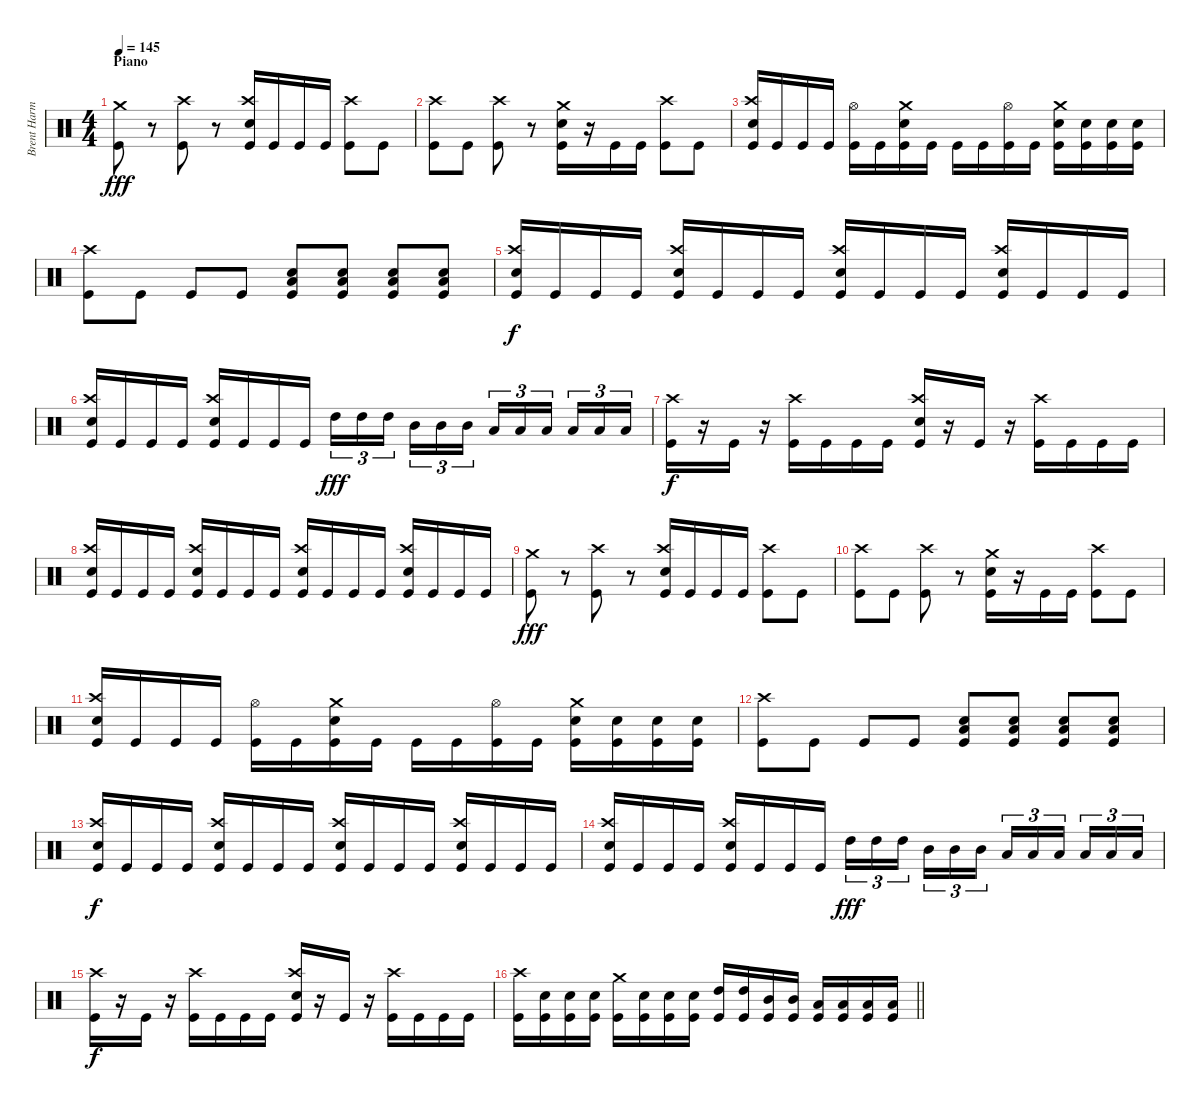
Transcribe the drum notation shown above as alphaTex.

\track ("Brent Harman" "Brent Harm") {instrument percussion}
\staff {score}
\articulation defaults
\ts (4 4)
\section ("" "Piano")
\tempo 145
\clef neutral
\ks c
("Crash medium (hit)" "Kick (hit)").8{dy fff} r.8 ("Crash high (hit)" "Kick (hit)").8 r.8 ("Crash high (hit)" "Snare (hit) 2" "Kick (hit)").16 "Kick (hit)".16 "Kick (hit)".16 "Kick (hit)".16 ("Crash high (hit)" "Kick (hit)").8 "Kick (hit)".8 |
("Crash high (hit)" "Kick (hit)").8 "Kick (hit)".8 ("Crash high (hit)" "Kick (hit)").8 r.8 ("Crash medium (hit)" "Snare (hit) 2" "Kick (hit)").16 r.16 "Kick (hit)".16 "Kick (hit)".16 ("Crash high (hit)" "Kick (hit)").8 "Kick (hit)".8 |
("Crash high (hit)" "Snare (hit) 2" "Kick (hit)").16 "Kick (hit)".16 "Kick (hit)".16 "Kick (hit)".16 ("Hi-Hat (open)" "Kick (hit)").16 "Kick (hit)".16 ("Crash medium (hit)" "Snare (hit) 2" "Kick (hit)").16 "Kick (hit)".16 "Kick (hit)".16 "Kick (hit)".16 ("Hi-Hat (open)" "Kick (hit)").16 "Kick (hit)".16 ("Crash medium (hit)" "Snare (hit) 2" "Kick (hit)").16 ("Snare (hit) 2" "Kick (hit)").16 ("Snare (hit) 2" "Kick (hit)").16 ("Snare (hit) 2" "Kick (hit)").16 |
("Crash high (hit)" "Kick (hit)").8 "Kick (hit)".8 "Kick (hit)".8 "Kick (hit)".8 ("Snare (hit) 2" "Low Floor Tom (hit)" "Kick (hit)").8 ("Snare (hit) 2" "Low Floor Tom (hit)" "Kick (hit)").8 ("Snare (hit) 2" "Low Floor Tom (hit)" "Kick (hit)").8 ("Snare (hit) 2" "Low Floor Tom (hit)" "Kick (hit)").8 |
("Crash high (hit)" "Snare (hit) 2" "Kick (hit)").16{dy f} "Kick (hit)".16 "Kick (hit)".16 "Kick (hit)".16 ("Crash high (hit)" "Snare (hit) 2" "Kick (hit)").16 "Kick (hit)".16 "Kick (hit)".16 "Kick (hit)".16 ("Crash high (hit)" "Snare (hit) 2" "Kick (hit)").16 "Kick (hit)".16 "Kick (hit)".16 "Kick (hit)".16 ("Crash high (hit)" "Snare (hit) 2" "Kick (hit)").16 "Kick (hit)".16 "Kick (hit)".16 "Kick (hit)".16 |
("Crash high (hit)" "Snare (hit) 2" "Kick (hit)").16 "Kick (hit)".16 "Kick (hit)".16 "Kick (hit)".16 ("Crash high (hit)" "Snare (hit) 2" "Kick (hit)").16 "Kick (hit)".16 "Kick (hit)".16 "Kick (hit)".16 "High Tom (hit)".16{tu (3 2) dy fff} "High Tom (hit)".16{tu (3 2)} "High Tom (hit)".16{tu (3 2) beam splitsecondary} "Mid Tom (hit)".16{tu (3 2)} "Mid Tom (hit)".16{tu (3 2)} "Mid Tom (hit)".16{tu (3 2)} "Low Tom (hit)".16{tu (3 2)} "Low Tom (hit)".16{tu (3 2)} "Low Tom (hit)".16{tu (3 2) beam splitsecondary} "Low Floor Tom (hit)".16{tu (3 2)} "Low Floor Tom (hit)".16{tu (3 2)} "Low Floor Tom (hit)".16{tu (3 2)} |
("Crash high (hit)" "Kick (hit)").16{dy f} r.16 "Kick (hit)".16 r.16 ("Crash high (hit)" "Kick (hit)").16 "Kick (hit)".16 "Kick (hit)".16 "Kick (hit)".16 ("Crash high (hit)" "Snare (hit) 2" "Kick (hit)").16 r.16 "Kick (hit)".16 r.16 ("Crash high (hit)" "Kick (hit)").16 "Kick (hit)".16 "Kick (hit)".16 "Kick (hit)".16 |
("Crash high (hit)" "Snare (hit) 2" "Kick (hit)").16 "Kick (hit)".16 "Kick (hit)".16 "Kick (hit)".16 ("Crash high (hit)" "Snare (hit) 2" "Kick (hit)").16 "Kick (hit)".16 "Kick (hit)".16 "Kick (hit)".16 ("Crash high (hit)" "Snare (hit) 2" "Kick (hit)").16 "Kick (hit)".16 "Kick (hit)".16 "Kick (hit)".16 ("Crash high (hit)" "Snare (hit) 2" "Kick (hit)").16 "Kick (hit)".16 "Kick (hit)".16 "Kick (hit)".16 |
("Crash medium (hit)" "Kick (hit)").8{dy fff} r.8 ("Crash high (hit)" "Kick (hit)").8 r.8 ("Crash high (hit)" "Snare (hit) 2" "Kick (hit)").16 "Kick (hit)".16 "Kick (hit)".16 "Kick (hit)".16 ("Crash high (hit)" "Kick (hit)").8 "Kick (hit)".8 |
("Crash high (hit)" "Kick (hit)").8 "Kick (hit)".8 ("Crash high (hit)" "Kick (hit)").8 r.8 ("Crash medium (hit)" "Snare (hit) 2" "Kick (hit)").16 r.16 "Kick (hit)".16 "Kick (hit)".16 ("Crash high (hit)" "Kick (hit)").8 "Kick (hit)".8 |
("Crash high (hit)" "Snare (hit) 2" "Kick (hit)").16 "Kick (hit)".16 "Kick (hit)".16 "Kick (hit)".16 ("Hi-Hat (open)" "Kick (hit)").16 "Kick (hit)".16 ("Crash medium (hit)" "Snare (hit) 2" "Kick (hit)").16 "Kick (hit)".16 "Kick (hit)".16 "Kick (hit)".16 ("Hi-Hat (open)" "Kick (hit)").16 "Kick (hit)".16 ("Crash medium (hit)" "Snare (hit) 2" "Kick (hit)").16 ("Snare (hit) 2" "Kick (hit)").16 ("Snare (hit) 2" "Kick (hit)").16 ("Snare (hit) 2" "Kick (hit)").16 |
("Crash high (hit)" "Kick (hit)").8 "Kick (hit)".8 "Kick (hit)".8 "Kick (hit)".8 ("Snare (hit) 2" "Low Floor Tom (hit)" "Kick (hit)").8 ("Snare (hit) 2" "Low Floor Tom (hit)" "Kick (hit)").8 ("Snare (hit) 2" "Low Floor Tom (hit)" "Kick (hit)").8 ("Snare (hit) 2" "Low Floor Tom (hit)" "Kick (hit)").8 |
("Crash high (hit)" "Snare (hit) 2" "Kick (hit)").16{dy f} "Kick (hit)".16 "Kick (hit)".16 "Kick (hit)".16 ("Crash high (hit)" "Snare (hit) 2" "Kick (hit)").16 "Kick (hit)".16 "Kick (hit)".16 "Kick (hit)".16 ("Crash high (hit)" "Snare (hit) 2" "Kick (hit)").16 "Kick (hit)".16 "Kick (hit)".16 "Kick (hit)".16 ("Crash high (hit)" "Snare (hit) 2" "Kick (hit)").16 "Kick (hit)".16 "Kick (hit)".16 "Kick (hit)".16 |
("Crash high (hit)" "Snare (hit) 2" "Kick (hit)").16 "Kick (hit)".16 "Kick (hit)".16 "Kick (hit)".16 ("Crash high (hit)" "Snare (hit) 2" "Kick (hit)").16 "Kick (hit)".16 "Kick (hit)".16 "Kick (hit)".16 "High Tom (hit)".16{tu (3 2) dy fff} "High Tom (hit)".16{tu (3 2)} "High Tom (hit)".16{tu (3 2) beam splitsecondary} "Mid Tom (hit)".16{tu (3 2)} "Mid Tom (hit)".16{tu (3 2)} "Mid Tom (hit)".16{tu (3 2)} "Low Tom (hit)".16{tu (3 2)} "Low Tom (hit)".16{tu (3 2)} "Low Tom (hit)".16{tu (3 2) beam splitsecondary} "Low Floor Tom (hit)".16{tu (3 2)} "Low Floor Tom (hit)".16{tu (3 2)} "Low Floor Tom (hit)".16{tu (3 2)} |
("Crash high (hit)" "Kick (hit)").16{dy f} r.16 "Kick (hit)".16 r.16 ("Crash high (hit)" "Kick (hit)").16 "Kick (hit)".16 "Kick (hit)".16 "Kick (hit)".16 ("Crash high (hit)" "Snare (hit) 2" "Kick (hit)").16 r.16 "Kick (hit)".16 r.16 ("Crash high (hit)" "Kick (hit)").16 "Kick (hit)".16 "Kick (hit)".16 "Kick (hit)".16 |
\barLineRight lightlight
("Crash high (hit)" "Kick (hit)").16 ("Snare (hit) 2" "Kick (hit)").16 ("Snare (hit) 2" "Kick (hit)").16 ("Snare (hit) 2" "Kick (hit)").16 ("Crash medium (hit)" "Kick (hit)").16 ("Snare (hit) 2" "Kick (hit)").16 ("Snare (hit) 2" "Kick (hit)").16 ("Snare (hit) 2" "Kick (hit)").16 ("High Tom (hit)" "Kick (hit)").16 ("High Tom (hit)" "Kick (hit)").16 ("Mid Tom (hit)" "Kick (hit)").16 ("Mid Tom (hit)" "Kick (hit)").16 ("Low Tom (hit)" "Kick (hit)").16 ("Low Tom (hit)" "Kick (hit)").16 ("Low Floor Tom (hit)" "Kick (hit)").16 ("Low Floor Tom (hit)" "Kick (hit)").16
